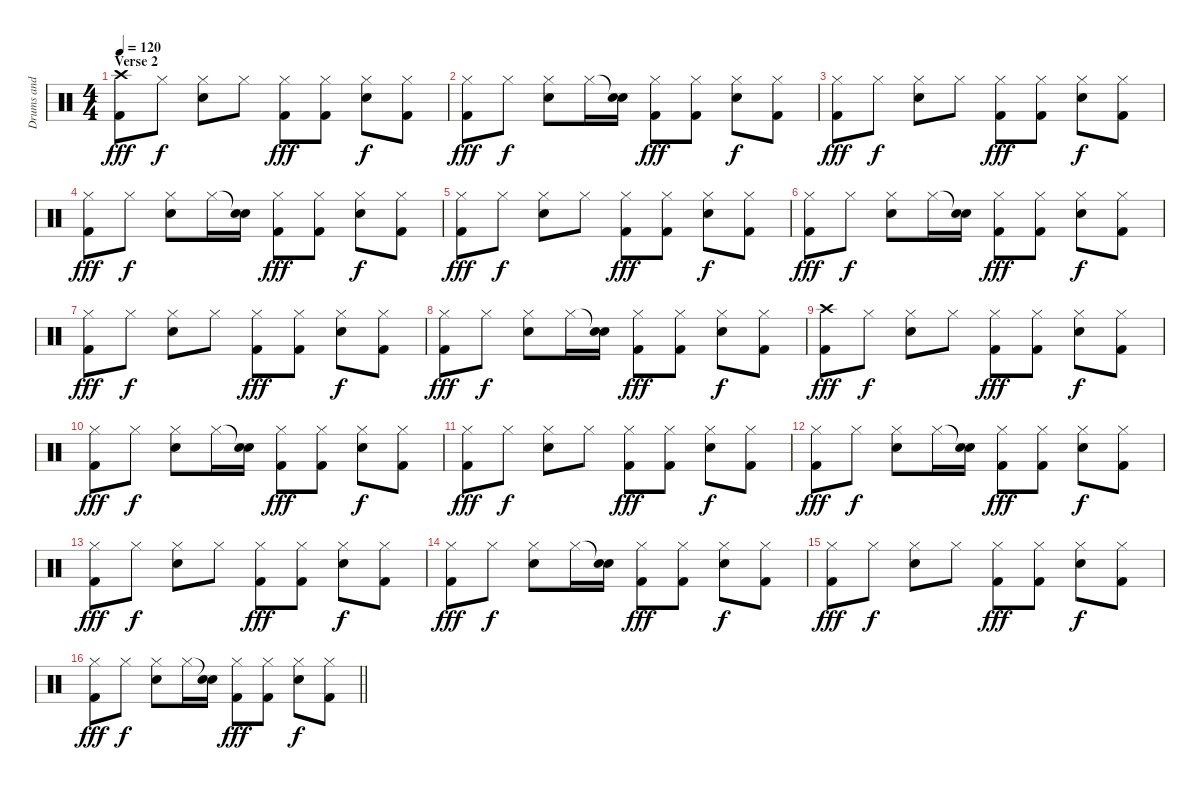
\track ("Drums and Percussion" "Drums and ") {instrument percussion}
\staff {score}
\articulation defaults
\ts (4 4)
\section ("" "Verse 2")
\tempo 120
\clef neutral
\ks c
("Crash high (hit)" "Kick (hit) 2").8{dy fff} "Hi-Hat (closed)".8{dy f} ("Hi-Hat (closed)" "Snare (hit) 2").8 "Hi-Hat (closed)".8 ("Hi-Hat (closed)" "Kick (hit) 2").8{dy fff} ("Hi-Hat (closed)" "Kick (hit) 2").8 ("Hi-Hat (closed)" "Snare (hit) 2").8{dy f} ("Hi-Hat (closed)" "Kick (hit) 2").8 |
("Hi-Hat (closed)" "Kick (hit) 2").8{dy fff} "Hi-Hat (closed)".8{dy f} ("Hi-Hat (closed)" "Snare (hit) 2").8 "Hi-Hat (closed)".16 ("Snare (hit)"{t} "Snare (hit) 2").16 ("Hi-Hat (closed)" "Kick (hit) 2").8{dy fff} ("Hi-Hat (closed)" "Kick (hit) 2").8 ("Hi-Hat (closed)" "Snare (hit) 2").8{dy f} ("Hi-Hat (closed)" "Kick (hit) 2").8 |
("Hi-Hat (closed)" "Kick (hit) 2").8{dy fff} "Hi-Hat (closed)".8{dy f} ("Hi-Hat (closed)" "Snare (hit) 2").8 "Hi-Hat (closed)".8 ("Hi-Hat (closed)" "Kick (hit) 2").8{dy fff} ("Hi-Hat (closed)" "Kick (hit) 2").8 ("Hi-Hat (closed)" "Snare (hit) 2").8{dy f} ("Hi-Hat (closed)" "Kick (hit) 2").8 |
("Hi-Hat (closed)" "Kick (hit) 2").8{dy fff} "Hi-Hat (closed)".8{dy f} ("Hi-Hat (closed)" "Snare (hit) 2").8 "Hi-Hat (closed)".16 ("Snare (hit)"{t} "Snare (hit) 2").16 ("Hi-Hat (closed)" "Kick (hit) 2").8{dy fff} ("Hi-Hat (closed)" "Kick (hit) 2").8 ("Hi-Hat (closed)" "Snare (hit) 2").8{dy f} ("Hi-Hat (closed)" "Kick (hit) 2").8 |
("Hi-Hat (closed)" "Kick (hit) 2").8{dy fff} "Hi-Hat (closed)".8{dy f} ("Hi-Hat (closed)" "Snare (hit) 2").8 "Hi-Hat (closed)".8 ("Hi-Hat (closed)" "Kick (hit) 2").8{dy fff} ("Hi-Hat (closed)" "Kick (hit) 2").8 ("Hi-Hat (closed)" "Snare (hit) 2").8{dy f} ("Hi-Hat (closed)" "Kick (hit) 2").8 |
("Hi-Hat (closed)" "Kick (hit) 2").8{dy fff} "Hi-Hat (closed)".8{dy f} ("Hi-Hat (closed)" "Snare (hit) 2").8 "Hi-Hat (closed)".16 ("Snare (hit)"{t} "Snare (hit) 2").16 ("Hi-Hat (closed)" "Kick (hit) 2").8{dy fff} ("Hi-Hat (closed)" "Kick (hit) 2").8 ("Hi-Hat (closed)" "Snare (hit) 2").8{dy f} ("Hi-Hat (closed)" "Kick (hit) 2").8 |
("Hi-Hat (closed)" "Kick (hit) 2").8{dy fff} "Hi-Hat (closed)".8{dy f} ("Hi-Hat (closed)" "Snare (hit) 2").8 "Hi-Hat (closed)".8 ("Hi-Hat (closed)" "Kick (hit) 2").8{dy fff} ("Hi-Hat (closed)" "Kick (hit) 2").8 ("Hi-Hat (closed)" "Snare (hit) 2").8{dy f} ("Hi-Hat (closed)" "Kick (hit) 2").8 |
("Hi-Hat (closed)" "Kick (hit) 2").8{dy fff} "Hi-Hat (closed)".8{dy f} ("Hi-Hat (closed)" "Snare (hit) 2").8 "Hi-Hat (closed)".16 ("Snare (hit)"{t} "Snare (hit) 2").16 ("Hi-Hat (closed)" "Kick (hit) 2").8{dy fff} ("Hi-Hat (closed)" "Kick (hit) 2").8 ("Hi-Hat (closed)" "Snare (hit) 2").8{dy f} ("Hi-Hat (closed)" "Kick (hit) 2").8 |
("Crash high (hit)" "Kick (hit) 2").8{dy fff} "Hi-Hat (closed)".8{dy f} ("Hi-Hat (closed)" "Snare (hit) 2").8 "Hi-Hat (closed)".8 ("Hi-Hat (closed)" "Kick (hit) 2").8{dy fff} ("Hi-Hat (closed)" "Kick (hit) 2").8 ("Hi-Hat (closed)" "Snare (hit) 2").8{dy f} ("Hi-Hat (closed)" "Kick (hit) 2").8 |
("Hi-Hat (closed)" "Kick (hit) 2").8{dy fff} "Hi-Hat (closed)".8{dy f} ("Hi-Hat (closed)" "Snare (hit) 2").8 "Hi-Hat (closed)".16 ("Snare (hit)"{t} "Snare (hit) 2").16 ("Hi-Hat (closed)" "Kick (hit) 2").8{dy fff} ("Hi-Hat (closed)" "Kick (hit) 2").8 ("Hi-Hat (closed)" "Snare (hit) 2").8{dy f} ("Hi-Hat (closed)" "Kick (hit) 2").8 |
("Hi-Hat (closed)" "Kick (hit) 2").8{dy fff} "Hi-Hat (closed)".8{dy f} ("Hi-Hat (closed)" "Snare (hit) 2").8 "Hi-Hat (closed)".8 ("Hi-Hat (closed)" "Kick (hit) 2").8{dy fff} ("Hi-Hat (closed)" "Kick (hit) 2").8 ("Hi-Hat (closed)" "Snare (hit) 2").8{dy f} ("Hi-Hat (closed)" "Kick (hit) 2").8 |
("Hi-Hat (closed)" "Kick (hit) 2").8{dy fff} "Hi-Hat (closed)".8{dy f} ("Hi-Hat (closed)" "Snare (hit) 2").8 "Hi-Hat (closed)".16 ("Snare (hit)"{t} "Snare (hit) 2").16 ("Hi-Hat (closed)" "Kick (hit) 2").8{dy fff} ("Hi-Hat (closed)" "Kick (hit) 2").8 ("Hi-Hat (closed)" "Snare (hit) 2").8{dy f} ("Hi-Hat (closed)" "Kick (hit) 2").8 |
("Hi-Hat (closed)" "Kick (hit) 2").8{dy fff} "Hi-Hat (closed)".8{dy f} ("Hi-Hat (closed)" "Snare (hit) 2").8 "Hi-Hat (closed)".8 ("Hi-Hat (closed)" "Kick (hit) 2").8{dy fff} ("Hi-Hat (closed)" "Kick (hit) 2").8 ("Hi-Hat (closed)" "Snare (hit) 2").8{dy f} ("Hi-Hat (closed)" "Kick (hit) 2").8 |
("Hi-Hat (closed)" "Kick (hit) 2").8{dy fff} "Hi-Hat (closed)".8{dy f} ("Hi-Hat (closed)" "Snare (hit) 2").8 "Hi-Hat (closed)".16 ("Snare (hit)"{t} "Snare (hit) 2").16 ("Hi-Hat (closed)" "Kick (hit) 2").8{dy fff} ("Hi-Hat (closed)" "Kick (hit) 2").8 ("Hi-Hat (closed)" "Snare (hit) 2").8{dy f} ("Hi-Hat (closed)" "Kick (hit) 2").8 |
("Hi-Hat (closed)" "Kick (hit) 2").8{dy fff} "Hi-Hat (closed)".8{dy f} ("Hi-Hat (closed)" "Snare (hit) 2").8 "Hi-Hat (closed)".8 ("Hi-Hat (closed)" "Kick (hit) 2").8{dy fff} ("Hi-Hat (closed)" "Kick (hit) 2").8 ("Hi-Hat (closed)" "Snare (hit) 2").8{dy f} ("Hi-Hat (closed)" "Kick (hit) 2").8 |
\barLineRight lightlight
("Hi-Hat (closed)" "Kick (hit) 2").8{dy fff} "Hi-Hat (closed)".8{dy f} ("Hi-Hat (closed)" "Snare (hit) 2").8 "Hi-Hat (closed)".16 ("Snare (hit)"{t} "Snare (hit) 2").16 ("Hi-Hat (closed)" "Kick (hit) 2").8{dy fff} ("Hi-Hat (closed)" "Kick (hit) 2").8 ("Hi-Hat (closed)" "Snare (hit) 2").8{dy f} ("Hi-Hat (closed)" "Kick (hit) 2").8
